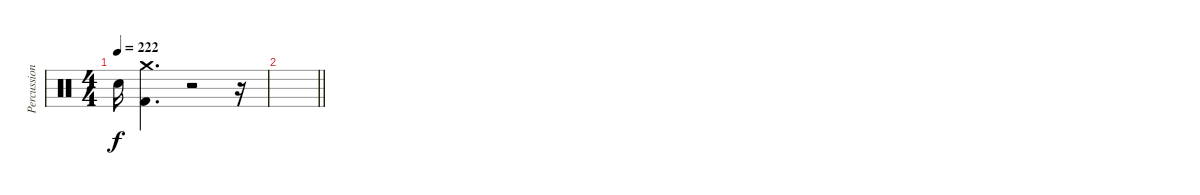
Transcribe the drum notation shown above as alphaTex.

\track ("Percussions" "Percussion") {instrument percussion}
\staff {score}
\articulation defaults
\ts (4 4)
\tempo 222
\clef neutral
\ks c "Electric Snare (hit)".16{dy f}
("Crash medium (hit)" "Kick (hit) 2").4{d} r.2 r.16 |
\barLineRight lightlight
